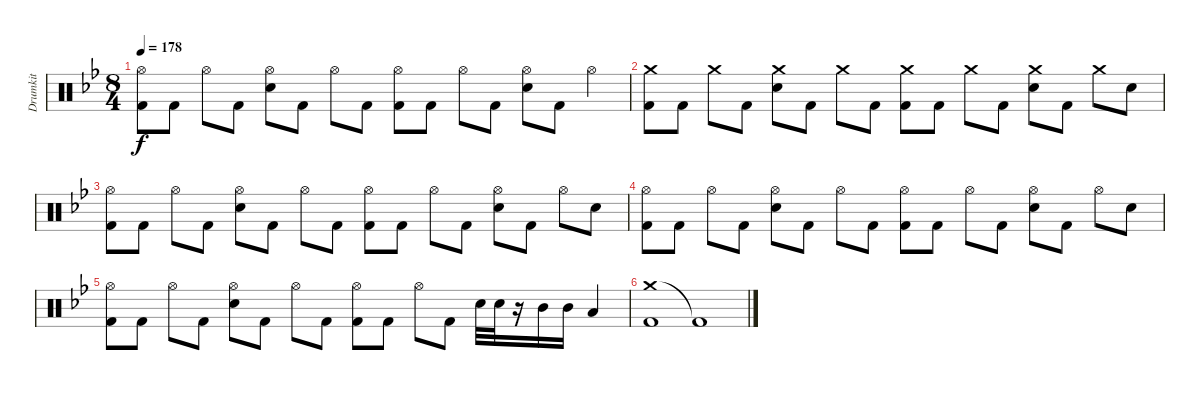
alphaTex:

\track ("Drumkit" "Drumkit") {instrument percussion}
\staff {score}
\articulation defaults
\ts (8 4)
\tempo 178
\clef neutral
\ks bb
("Kick (hit) 2" "Hi-Hat (open)").8{dy f} "Kick (hit) 2".8 "Hi-Hat (open)".8 "Kick (hit) 2".8 ("Hi-Hat (open)" "Snare (hit) 2").8 "Kick (hit) 2".8 "Hi-Hat (open)".8 "Kick (hit) 2".8 ("Hi-Hat (open)" "Kick (hit) 2").8 "Kick (hit) 2".8 "Hi-Hat (open)".8 "Kick (hit) 2".8 ("Hi-Hat (open)" "Snare (hit) 2").8 "Kick (hit) 2".8 "Hi-Hat (open)".4 |
("Kick (hit) 2" "Crash medium (hit)").8 "Kick (hit) 2".8 "Crash medium (hit)".8 "Kick (hit) 2".8 ("Crash medium (hit)" "Snare (hit) 2").8 "Kick (hit) 2".8 "Crash medium (hit)".8 "Kick (hit) 2".8 ("Crash medium (hit)" "Kick (hit) 2").8 "Kick (hit) 2".8 "Crash medium (hit)".8 "Kick (hit) 2".8 ("Crash medium (hit)" "Snare (hit) 2").8 "Kick (hit) 2".8 "Crash medium (hit)".8 "Snare (hit) 2".8 |
("Kick (hit) 2" "Hi-Hat (open)").8 "Kick (hit) 2".8 "Hi-Hat (open)".8 "Kick (hit) 2".8 ("Hi-Hat (open)" "Snare (hit) 2").8 "Kick (hit) 2".8 "Hi-Hat (open)".8 "Kick (hit) 2".8 ("Hi-Hat (open)" "Kick (hit) 2").8 "Kick (hit) 2".8 "Hi-Hat (open)".8 "Kick (hit) 2".8 ("Hi-Hat (open)" "Snare (hit) 2").8 "Kick (hit) 2".8 "Hi-Hat (open)".8 "Snare (hit) 2".8 |
("Kick (hit) 2" "Hi-Hat (open)").8 "Kick (hit) 2".8 "Hi-Hat (open)".8 "Kick (hit) 2".8 ("Hi-Hat (open)" "Snare (hit) 2").8 "Kick (hit) 2".8 "Hi-Hat (open)".8 "Kick (hit) 2".8 ("Hi-Hat (open)" "Kick (hit) 2").8 "Kick (hit) 2".8 "Hi-Hat (open)".8 "Kick (hit) 2".8 ("Hi-Hat (open)" "Snare (hit) 2").8 "Kick (hit) 2".8 "Hi-Hat (open)".8 "Snare (hit) 2".8 |
("Kick (hit) 2" "Hi-Hat (open)").8 "Kick (hit) 2".8 "Hi-Hat (open)".8 "Kick (hit) 2".8 ("Hi-Hat (open)" "Snare (hit) 2").8 "Kick (hit) 2".8 "Hi-Hat (open)".8 "Kick (hit) 2".8 ("Hi-Hat (open)" "Kick (hit) 2").8 "Kick (hit) 2".8 "Hi-Hat (open)".8 "Kick (hit) 2".8 "Snare (hit) 2".32 "Snare (hit) 2".32 r.16 "Mid Tom (hit)".16 "Mid Tom (hit)".16 "Low Tom (hit)".4 |
("Crash medium (hit)" "Kick (hit) 2").1 "Kick (hit) 2"{t}.1
